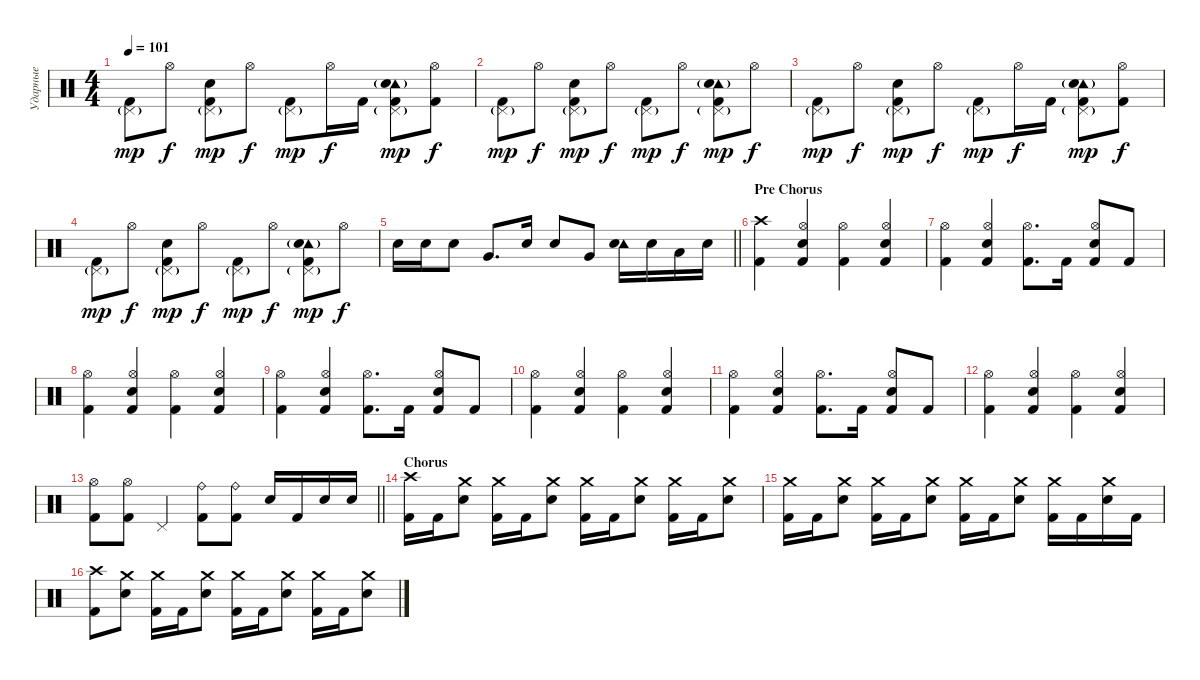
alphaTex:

\track ("Ударные" "Ударные") {instrument percussion}
\staff {score}
\articulation defaults
\ts (4 4)
\tempo 101
\clef neutral
\ks c
("Pedal Hi-Hat (hit)"{g} "Kick (hit) 2").8{dy mp} "Hi-Hat (open)".8{dy f} ("Pedal Hi-Hat (hit)"{g} "Electric Snare (hit)" "Kick (hit) 2").8{dy mp} "Hi-Hat (open)".8{dy f} ("Pedal Hi-Hat (hit)"{g} "Kick (hit) 2").8{dy mp} "Hi-Hat (open)".16{dy f} "Kick (hit) 2".16 ("Tambourine (hit)"{g} "Pedal Hi-Hat (hit)"{g} "Electric Snare (hit)" "Kick (hit) 2").8{dy mp} ("Hi-Hat (open)" "Kick (hit) 2").8{dy f} |
("Pedal Hi-Hat (hit)"{g} "Kick (hit) 2").8{dy mp} "Hi-Hat (open)".8{dy f} ("Pedal Hi-Hat (hit)"{g} "Electric Snare (hit)" "Kick (hit) 2").8{dy mp} "Hi-Hat (open)".8{dy f} ("Pedal Hi-Hat (hit)"{g} "Kick (hit) 2").8{dy mp} "Hi-Hat (open)".8{dy f} ("Tambourine (hit)"{g} "Pedal Hi-Hat (hit)"{g} "Electric Snare (hit)" "Kick (hit) 2").8{dy mp} "Hi-Hat (open)".8{dy f} |
("Pedal Hi-Hat (hit)"{g} "Kick (hit) 2").8{dy mp} "Hi-Hat (open)".8{dy f} ("Pedal Hi-Hat (hit)"{g} "Electric Snare (hit)" "Kick (hit) 2").8{dy mp} "Hi-Hat (open)".8{dy f} ("Pedal Hi-Hat (hit)"{g} "Kick (hit) 2").8{dy mp} "Hi-Hat (open)".16{dy f} "Kick (hit) 2".16 ("Tambourine (hit)"{g} "Pedal Hi-Hat (hit)"{g} "Electric Snare (hit)" "Kick (hit) 2").8{dy mp} ("Hi-Hat (open)" "Kick (hit) 2").8{dy f} |
("Pedal Hi-Hat (hit)"{g} "Kick (hit) 2").8{dy mp} "Hi-Hat (open)".8{dy f} ("Pedal Hi-Hat (hit)"{g} "Electric Snare (hit)" "Kick (hit) 2").8{dy mp} "Hi-Hat (open)".8{dy f} ("Pedal Hi-Hat (hit)"{g} "Kick (hit) 2").8{dy mp} "Hi-Hat (open)".8{dy f} ("Tambourine (hit)"{g} "Pedal Hi-Hat (hit)"{g} "Electric Snare (hit)" "Kick (hit) 2").8{dy mp} "Hi-Hat (open)".8{dy f} |
\barLineRight lightlight "Electric Snare (hit)".16 "Electric Snare (hit)".16 "Electric Snare (hit)".8 "Very Low Tom (hit)".8{d} "Electric Snare (hit)".16 "Electric Snare (hit)".8 "Very Low Tom (hit)".8
("Tambourine (hit)" "Electric Snare (hit)").16 "Electric Snare (hit)".16 "Low Tom (hit)".16 "Electric Snare (hit)".16 |
\section ("" "Pre Chorus")
("Crash high (hit)" "Kick (hit) 2").4 ("Hi-Hat (open)" "Electric Snare (hit)" "Kick (hit) 2").4 ("Hi-Hat (open)" "Kick (hit) 2").4 ("Hi-Hat (open)" "Electric Snare (hit)" "Kick (hit) 2").4 |
("Hi-Hat (open)" "Kick (hit) 2").4 ("Hi-Hat (open)" "Electric Snare (hit)" "Kick (hit) 2").4 ("Hi-Hat (open)" "Kick (hit) 2").8{d} "Kick (hit) 2".16 ("Hi-Hat (open)" "Electric Snare (hit)" "Kick (hit) 2").8 "Kick (hit) 2".8 |
("Hi-Hat (open)" "Kick (hit) 2").4 ("Hi-Hat (open)" "Electric Snare (hit)" "Kick (hit) 2").4 ("Hi-Hat (open)" "Kick (hit) 2").4 ("Hi-Hat (open)" "Electric Snare (hit)" "Kick (hit) 2").4 |
("Hi-Hat (open)" "Kick (hit) 2").4 ("Hi-Hat (open)" "Electric Snare (hit)" "Kick (hit) 2").4 ("Hi-Hat (open)" "Kick (hit) 2").8{d} "Kick (hit) 2".16 ("Hi-Hat (open)" "Electric Snare (hit)" "Kick (hit) 2").8 "Kick (hit) 2".8 |
("Hi-Hat (open)" "Kick (hit) 2").4 ("Hi-Hat (open)" "Electric Snare (hit)" "Kick (hit) 2").4 ("Hi-Hat (open)" "Kick (hit) 2").4 ("Hi-Hat (open)" "Electric Snare (hit)" "Kick (hit) 2").4 |
("Hi-Hat (open)" "Kick (hit) 2").4 ("Hi-Hat (open)" "Electric Snare (hit)" "Kick (hit) 2").4 ("Hi-Hat (open)" "Kick (hit) 2").8{d} "Kick (hit) 2".16 ("Hi-Hat (open)" "Electric Snare (hit)" "Kick (hit) 2").8 "Kick (hit) 2".8 |
("Hi-Hat (open)" "Kick (hit) 2").4 ("Hi-Hat (open)" "Electric Snare (hit)" "Kick (hit) 2").4 ("Hi-Hat (open)" "Kick (hit) 2").4 ("Hi-Hat (open)" "Electric Snare (hit)" "Kick (hit) 2").4 |
\barLineRight lightlight
("Hi-Hat (open)" "Kick (hit) 2").8 ("Hi-Hat (open)" "Kick (hit) 2").8 "Pedal Hi-Hat (hit)".4 ("Ride (bell)" "Kick (hit) 2").8 ("Ride (bell)" "Kick (hit) 2").8 "Electric Snare (hit)".16 "Kick (hit) 2".16 "Electric Snare (hit)".16 "Electric Snare (hit)".16 |
\section ("" "Chorus")
("Crash high (hit)" "Kick (hit) 2").16 "Kick (hit) 2".16 ("Crash medium (hit)" "Electric Snare (hit)").8 ("Crash medium (hit)" "Kick (hit) 2").16 "Kick (hit) 2".16 ("Crash medium (hit)" "Electric Snare (hit)").8 ("Crash medium (hit)" "Kick (hit) 2").16 "Kick (hit) 2".16 ("Crash medium (hit)" "Electric Snare (hit)").8 ("Crash medium (hit)" "Kick (hit) 2").16 "Kick (hit) 2".16 ("Crash medium (hit)" "Electric Snare (hit)").8 |
("Crash medium (hit)" "Kick (hit) 2").16 "Kick (hit) 2".16 ("Crash medium (hit)" "Electric Snare (hit)").8 ("Crash medium (hit)" "Kick (hit) 2").16 "Kick (hit) 2".16 ("Crash medium (hit)" "Electric Snare (hit)").8 ("Crash medium (hit)" "Kick (hit) 2").16 "Kick (hit) 2".16 ("Crash medium (hit)" "Electric Snare (hit)").8 ("Crash medium (hit)" "Kick (hit) 2").16 "Kick (hit) 2".16 ("Crash medium (hit)" "Electric Snare (hit)").16 "Kick (hit) 2".16 |
("Crash high (hit)" "Kick (hit) 2").8 ("Crash medium (hit)" "Electric Snare (hit)").8 ("Crash medium (hit)" "Kick (hit) 2").16 "Kick (hit) 2".16 ("Crash medium (hit)" "Electric Snare (hit)").8 ("Crash medium (hit)" "Kick (hit) 2").16 "Kick (hit) 2".16 ("Crash medium (hit)" "Electric Snare (hit)").8 ("Crash medium (hit)" "Kick (hit) 2").16 "Kick (hit) 2".16 ("Crash medium (hit)" "Electric Snare (hit)").8
